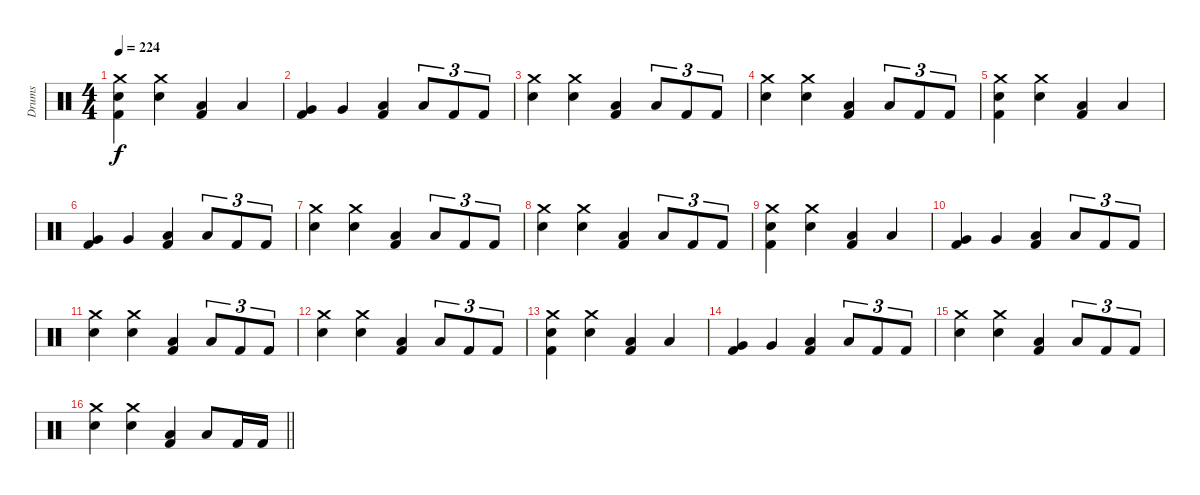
\track ("Drums" "Drums") {instrument percussion}
\staff {score}
\articulation defaults
\ts (4 4)
\tempo 224
\clef neutral
\ks c
("Crash medium (hit)" "Electric Snare (hit)" "Kick (hit) 2").4{dy f} ("Crash medium (hit)" "Electric Snare (hit)").4 ("Kick (hit) 2" "Low Tom (hit)").4 "Low Tom (hit)".4 |
("Very Low Tom (hit)" "Kick (hit) 2").4 "Very Low Tom (hit)".4 ("Low Tom (hit)" "Kick (hit) 2").4 "Low Tom (hit)".8{tu (3 2)} "Kick (hit) 2".8{tu (3 2)} "Kick (hit) 2".8{tu (3 2)} |
("Crash medium (hit)" "Electric Snare (hit)").4 ("Crash medium (hit)" "Electric Snare (hit)").4 ("Low Tom (hit)" "Kick (hit) 2").4 "Low Tom (hit)".8{tu (3 2)} "Kick (hit) 2".8{tu (3 2)} "Kick (hit) 2".8{tu (3 2)} |
("Crash medium (hit)" "Electric Snare (hit)").4 ("Crash medium (hit)" "Electric Snare (hit)").4 ("Low Tom (hit)" "Kick (hit) 2").4 "Low Tom (hit)".8{tu (3 2)} "Kick (hit) 2".8{tu (3 2)} "Kick (hit) 2".8{tu (3 2)} |
("Crash medium (hit)" "Electric Snare (hit)" "Kick (hit) 2").4 ("Crash medium (hit)" "Electric Snare (hit)").4 ("Kick (hit) 2" "Low Tom (hit)").4 "Low Tom (hit)".4 |
("Very Low Tom (hit)" "Kick (hit) 2").4 "Very Low Tom (hit)".4 ("Low Tom (hit)" "Kick (hit) 2").4 "Low Tom (hit)".8{tu (3 2)} "Kick (hit) 2".8{tu (3 2)} "Kick (hit) 2".8{tu (3 2)} |
("Crash medium (hit)" "Electric Snare (hit)").4 ("Crash medium (hit)" "Electric Snare (hit)").4 ("Low Tom (hit)" "Kick (hit) 2").4 "Low Tom (hit)".8{tu (3 2)} "Kick (hit) 2".8{tu (3 2)} "Kick (hit) 2".8{tu (3 2)} |
("Crash medium (hit)" "Electric Snare (hit)").4 ("Crash medium (hit)" "Electric Snare (hit)").4 ("Low Tom (hit)" "Kick (hit) 2").4 "Low Tom (hit)".8{tu (3 2)} "Kick (hit) 2".8{tu (3 2)} "Kick (hit) 2".8{tu (3 2)} |
("Crash medium (hit)" "Electric Snare (hit)" "Kick (hit) 2").4 ("Crash medium (hit)" "Electric Snare (hit)").4 ("Kick (hit) 2" "Low Tom (hit)").4 "Low Tom (hit)".4 |
("Very Low Tom (hit)" "Kick (hit) 2").4 "Very Low Tom (hit)".4 ("Low Tom (hit)" "Kick (hit) 2").4 "Low Tom (hit)".8{tu (3 2)} "Kick (hit) 2".8{tu (3 2)} "Kick (hit) 2".8{tu (3 2)} |
("Crash medium (hit)" "Electric Snare (hit)").4 ("Crash medium (hit)" "Electric Snare (hit)").4 ("Low Tom (hit)" "Kick (hit) 2").4 "Low Tom (hit)".8{tu (3 2)} "Kick (hit) 2".8{tu (3 2)} "Kick (hit) 2".8{tu (3 2)} |
("Crash medium (hit)" "Electric Snare (hit)").4 ("Crash medium (hit)" "Electric Snare (hit)").4 ("Low Tom (hit)" "Kick (hit) 2").4 "Low Tom (hit)".8{tu (3 2)} "Kick (hit) 2".8{tu (3 2)} "Kick (hit) 2".8{tu (3 2)} |
("Crash medium (hit)" "Electric Snare (hit)" "Kick (hit) 2").4 ("Crash medium (hit)" "Electric Snare (hit)").4 ("Kick (hit) 2" "Low Tom (hit)").4 "Low Tom (hit)".4 |
("Very Low Tom (hit)" "Kick (hit) 2").4 "Very Low Tom (hit)".4 ("Low Tom (hit)" "Kick (hit) 2").4 "Low Tom (hit)".8{tu (3 2)} "Kick (hit) 2".8{tu (3 2)} "Kick (hit) 2".8{tu (3 2)} |
("Crash medium (hit)" "Electric Snare (hit)").4 ("Crash medium (hit)" "Electric Snare (hit)").4 ("Low Tom (hit)" "Kick (hit) 2").4 "Low Tom (hit)".8{tu (3 2)} "Kick (hit) 2".8{tu (3 2)} "Kick (hit) 2".8{tu (3 2)} |
\barLineRight lightlight
("Crash medium (hit)" "Electric Snare (hit)").4 ("Crash medium (hit)" "Electric Snare (hit)").4 ("Low Tom (hit)" "Kick (hit) 2").4 "Low Tom (hit)".8 "Kick (hit) 2".16 "Kick (hit) 2".16
